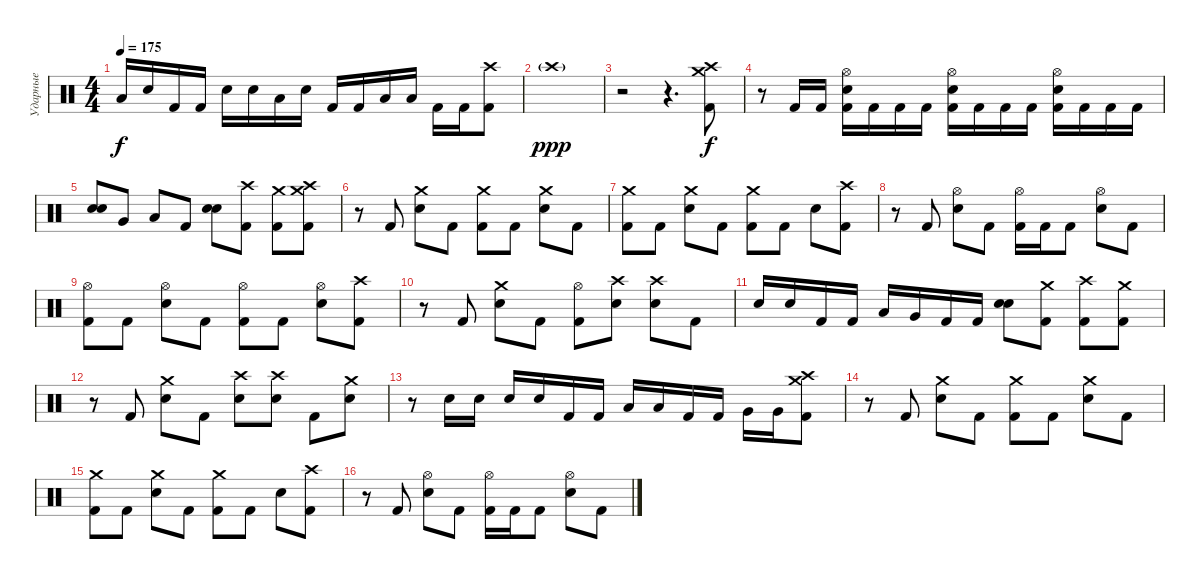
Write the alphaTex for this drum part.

\track ("Ударные" "Ударные") {instrument percussion}
\staff {score}
\articulation defaults
\ts (4 4)
\tempo 175
\clef neutral
\ks c "Low Tom (hit)".16{dy f} "Electric Snare (hit)".16 "Kick (hit) 2".16 "Kick (hit) 2".16 "Electric Snare (hit)".16 "Electric Snare (hit)".16 "Low Tom (hit)".16 "Electric Snare (hit)".16 "Kick (hit) 2".16 "Kick (hit) 2".16 "Low Tom (hit)".16 "Low Tom (hit)".16 "Kick (hit) 2".16 "Kick (hit) 2".16
("Crash high (hit)" "Kick (hit) 2").8 |
"Crash high (hit)"{g}.1{dy ppp} |
r.2 r.4{d} ("Crash high (hit)" "Crash medium (hit)" "Kick (hit) 2").8{dy f} |
r.8 "Kick (hit) 2".16 "Kick (hit) 2".16 ("Hi-Hat (open)" "Electric Snare (hit)" "Kick (hit) 2").16 "Kick (hit) 2".16 "Kick (hit) 2".16 "Kick (hit) 2".16 ("Hi-Hat (open)" "Electric Snare (hit)" "Kick (hit) 2").16 "Kick (hit) 2".16 "Kick (hit) 2".16 "Kick (hit) 2".16 ("Hi-Hat (open)" "Electric Snare (hit)" "Kick (hit) 2").16 "Kick (hit) 2".16 "Kick (hit) 2".16 "Kick (hit) 2".16 |
("Electric Snare (hit)" "Electric Snare (hit)").8{bd 240} "Very Low Tom (hit)".8 "Low Tom (hit)".8 "Kick (hit) 2".8 ("Electric Snare (hit)" "Electric Snare (hit)").8{bd 240} ("Crash high (hit)" "Kick (hit) 2").8 ("Crash medium (hit)" "Kick (hit) 2").8 ("Crash high (hit)" "Crash medium (hit)" "Kick (hit) 2").8 |
r.8 "Kick (hit) 2".8 ("Crash medium (hit)" "Electric Snare (hit)").8 "Kick (hit) 2".8 ("Crash medium (hit)" "Kick (hit) 2").8 "Kick (hit) 2".8 ("Crash medium (hit)" "Electric Snare (hit)").8 "Kick (hit) 2".8 |
("Crash medium (hit)" "Kick (hit) 2").8 "Kick (hit) 2".8 ("Crash medium (hit)" "Electric Snare (hit)").8 "Kick (hit) 2".8 ("Crash medium (hit)" "Kick (hit) 2").8 "Kick (hit) 2".8 "Electric Snare (hit)".8 ("Crash high (hit)" "Kick (hit) 2").8 |
r.8 "Kick (hit) 2".8 ("Hi-Hat (open)" "Electric Snare (hit)").8 "Kick (hit) 2".8 ("Hi-Hat (open)" "Kick (hit) 2").16 "Kick (hit) 2".16 "Kick (hit) 2".8 ("Hi-Hat (open)" "Electric Snare (hit)").8 "Kick (hit) 2".8 |
("Hi-Hat (open)" "Kick (hit) 2").8 "Kick (hit) 2".8 ("Hi-Hat (open)" "Electric Snare (hit)").8 "Kick (hit) 2".8 ("Hi-Hat (open)" "Kick (hit) 2").8 "Kick (hit) 2".8 ("Hi-Hat (open)" "Electric Snare (hit)").8 ("Crash high (hit)" "Kick (hit) 2").8 |
r.8 "Kick (hit) 2".8 ("Crash medium (hit)" "Electric Snare (hit)").8 "Kick (hit) 2".8 ("Hi-Hat (open)" "Kick (hit) 2").8 ("Crash high (hit)" "Electric Snare (hit)").8 ("Crash high (hit)" "Electric Snare (hit)").8 "Kick (hit) 2".8 |
"Electric Snare (hit)".16 "Electric Snare (hit)".16 "Kick (hit) 2".16 "Kick (hit) 2".16 "Low Tom (hit)".16 "Very Low Tom (hit)".16 "Kick (hit) 2".16 "Kick (hit) 2".16 ("Electric Snare (hit)" "Electric Snare (hit)").8{bd 60} ("Crash medium (hit)" "Kick (hit) 2").8 ("Crash high (hit)" "Kick (hit) 2").8 ("Crash medium (hit)" "Kick (hit) 2").8 |
r.8 "Kick (hit) 2".8 ("Crash medium (hit)" "Electric Snare (hit)").8 "Kick (hit) 2".8 ("Crash high (hit)" "Electric Snare (hit)").8 ("Crash high (hit)" "Electric Snare (hit)").8 "Kick (hit) 2".8 ("Crash medium (hit)" "Electric Snare (hit)").8 |
r.8 "Electric Snare (hit)".16 "Electric Snare (hit)".16 "Electric Snare (hit)".16 "Electric Snare (hit)".16 "Kick (hit) 2".16 "Kick (hit) 2".16 "Low Tom (hit)".16 "Low Tom (hit)".16 "Kick (hit) 2".16 "Kick (hit) 2".16 "Very Low Tom (hit)".16 "Very Low Tom (hit)".16 ("Crash high (hit)" "Crash medium (hit)" "Kick (hit) 2").8 |
r.8 "Kick (hit) 2".8 ("Crash medium (hit)" "Electric Snare (hit)").8 "Kick (hit) 2".8 ("Crash medium (hit)" "Kick (hit) 2").8 "Kick (hit) 2".8 ("Crash medium (hit)" "Electric Snare (hit)").8 "Kick (hit) 2".8 |
("Crash medium (hit)" "Kick (hit) 2").8 "Kick (hit) 2".8 ("Crash medium (hit)" "Electric Snare (hit)").8 "Kick (hit) 2".8 ("Crash medium (hit)" "Kick (hit) 2").8 "Kick (hit) 2".8 "Electric Snare (hit)".8 ("Crash high (hit)" "Kick (hit) 2").8 |
r.8 "Kick (hit) 2".8 ("Hi-Hat (open)" "Electric Snare (hit)").8 "Kick (hit) 2".8 ("Hi-Hat (open)" "Kick (hit) 2").16 "Kick (hit) 2".16 "Kick (hit) 2".8 ("Hi-Hat (open)" "Electric Snare (hit)").8 "Kick (hit) 2".8
